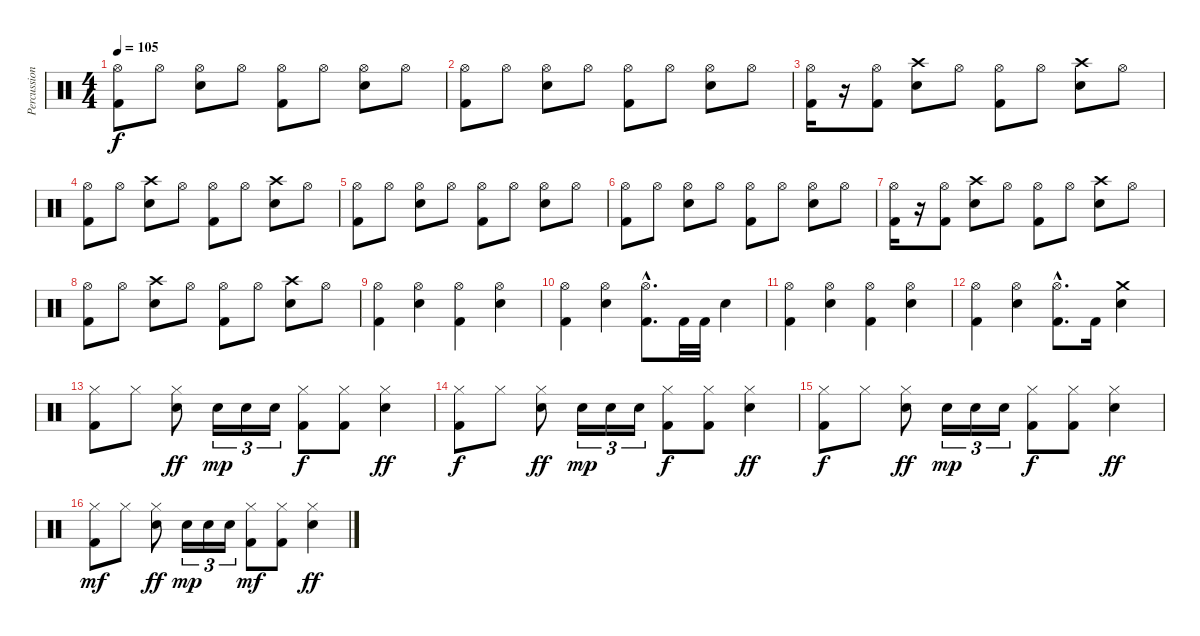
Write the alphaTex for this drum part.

\track ("Percussion" "Percussion") {instrument percussion}
\staff {score}
\articulation defaults
\ts (4 4)
\tempo 105
\clef neutral
\ks c
("Hi-Hat (open)" "Kick (hit) 2").8{dy f} "Hi-Hat (open)".8 ("Hi-Hat (open)" "Snare (hit) 2").8 "Hi-Hat (open)".8 ("Hi-Hat (open)" "Kick (hit) 2").8 "Hi-Hat (open)".8 ("Hi-Hat (open)" "Snare (hit) 2").8 "Hi-Hat (open)".8 |
("Hi-Hat (open)" "Kick (hit) 2").8 "Hi-Hat (open)".8 ("Hi-Hat (open)" "Snare (hit) 2").8 "Hi-Hat (open)".8 ("Hi-Hat (open)" "Kick (hit) 2").8 "Hi-Hat (open)".8 ("Hi-Hat (open)" "Snare (hit) 2").8 "Hi-Hat (open)".8 |
("Hi-Hat (open)" "Kick (hit) 2").16 r.16 ("Hi-Hat (open)" "Kick (hit) 2").8 ("Crash high (hit)" "Snare (hit) 2").8 "Hi-Hat (open)".8 ("Hi-Hat (open)" "Kick (hit) 2").8 "Hi-Hat (open)".8 ("Crash high (hit)" "Snare (hit) 2").8 "Hi-Hat (open)".8 |
("Hi-Hat (open)" "Kick (hit) 2").8 "Hi-Hat (open)".8 ("Crash high (hit)" "Snare (hit) 2").8 "Hi-Hat (open)".8 ("Hi-Hat (open)" "Kick (hit) 2").8 "Hi-Hat (open)".8 ("Crash high (hit)" "Snare (hit) 2").8 "Hi-Hat (open)".8 |
("Hi-Hat (open)" "Kick (hit) 2").8 "Hi-Hat (open)".8 ("Hi-Hat (open)" "Snare (hit) 2").8 "Hi-Hat (open)".8 ("Hi-Hat (open)" "Kick (hit) 2").8 "Hi-Hat (open)".8 ("Hi-Hat (open)" "Snare (hit) 2").8 "Hi-Hat (open)".8 |
("Hi-Hat (open)" "Kick (hit) 2").8 "Hi-Hat (open)".8 ("Hi-Hat (open)" "Snare (hit) 2").8 "Hi-Hat (open)".8 ("Hi-Hat (open)" "Kick (hit) 2").8 "Hi-Hat (open)".8 ("Hi-Hat (open)" "Snare (hit) 2").8 "Hi-Hat (open)".8 |
("Hi-Hat (open)" "Kick (hit) 2").16 r.16 ("Hi-Hat (open)" "Kick (hit) 2").8 ("Crash high (hit)" "Snare (hit) 2").8 "Hi-Hat (open)".8 ("Hi-Hat (open)" "Kick (hit) 2").8 "Hi-Hat (open)".8 ("Crash high (hit)" "Snare (hit) 2").8 "Hi-Hat (open)".8 |
("Hi-Hat (open)" "Kick (hit) 2").8 "Hi-Hat (open)".8 ("Crash high (hit)" "Snare (hit) 2").8 "Hi-Hat (open)".8 ("Hi-Hat (open)" "Kick (hit) 2").8 "Hi-Hat (open)".8 ("Crash high (hit)" "Snare (hit) 2").8 "Hi-Hat (open)".8 |
("Hi-Hat (open)" "Kick (hit) 2").4 ("Hi-Hat (open)" "Snare (hit) 2").4 ("Hi-Hat (open)" "Kick (hit) 2").4 ("Hi-Hat (open)" "Snare (hit) 2").4 |
("Hi-Hat (open)" "Kick (hit) 2").4 ("Hi-Hat (open)" "Snare (hit) 2").4 ("Hi-Hat (open)"{hac} "Kick (hit) 2"{hac}).8{d} "Kick (hit) 2".32 "Kick (hit) 2".32 "Snare (hit) 2".4 |
("Hi-Hat (open)" "Kick (hit) 2").4 ("Hi-Hat (open)" "Snare (hit) 2").4 ("Hi-Hat (open)" "Kick (hit) 2").4 ("Hi-Hat (open)" "Snare (hit) 2").4 |
("Hi-Hat (open)" "Kick (hit) 2").4 ("Hi-Hat (open)" "Snare (hit) 2").4 ("Hi-Hat (open)"{hac} "Kick (hit) 2"{hac}).8{d} "Kick (hit) 2".16 ("Crash medium (hit)" "Snare (hit) 2").4 |
("Hi-Hat (closed)" "Kick (hit) 2").8 "Hi-Hat (closed)".8 ("Hi-Hat (closed)" "Snare (hit) 2").8{dy ff} "Snare (hit) 2".16{tu (3 2) dy mp} "Snare (hit) 2".16{tu (3 2)} "Snare (hit) 2".16{tu (3 2)} ("Hi-Hat (closed)" "Kick (hit) 2").8{dy f} ("Hi-Hat (closed)" "Kick (hit) 2").8 ("Hi-Hat (closed)" "Snare (hit) 2").4{dy ff} |
("Hi-Hat (closed)" "Kick (hit) 2").8{dy f} "Hi-Hat (closed)".8 ("Hi-Hat (closed)" "Snare (hit) 2").8{dy ff} "Snare (hit) 2".16{tu (3 2) dy mp} "Snare (hit) 2".16{tu (3 2)} "Snare (hit) 2".16{tu (3 2)} ("Hi-Hat (closed)" "Kick (hit) 2").8{dy f} ("Hi-Hat (closed)" "Kick (hit) 2").8 ("Hi-Hat (closed)" "Snare (hit) 2").4{dy ff} |
("Hi-Hat (closed)" "Kick (hit) 2").8{dy f} "Hi-Hat (closed)".8 ("Hi-Hat (closed)" "Snare (hit) 2").8{dy ff} "Snare (hit) 2".16{tu (3 2) dy mp} "Snare (hit) 2".16{tu (3 2)} "Snare (hit) 2".16{tu (3 2)} ("Hi-Hat (closed)" "Kick (hit) 2").8{dy f} ("Hi-Hat (closed)" "Kick (hit) 2").8 ("Hi-Hat (closed)" "Snare (hit) 2").4{dy ff} |
("Hi-Hat (closed)" "Kick (hit) 2").8{dy mf} "Hi-Hat (closed)".8 ("Hi-Hat (closed)" "Snare (hit) 2").8{dy ff} "Snare (hit) 2".16{tu (3 2) dy mp} "Snare (hit) 2".16{tu (3 2)} "Snare (hit) 2".16{tu (3 2)} ("Hi-Hat (closed)" "Kick (hit) 2").8{dy mf} ("Hi-Hat (closed)" "Kick (hit) 2").8 ("Hi-Hat (closed)" "Snare (hit) 2").4{dy ff}
